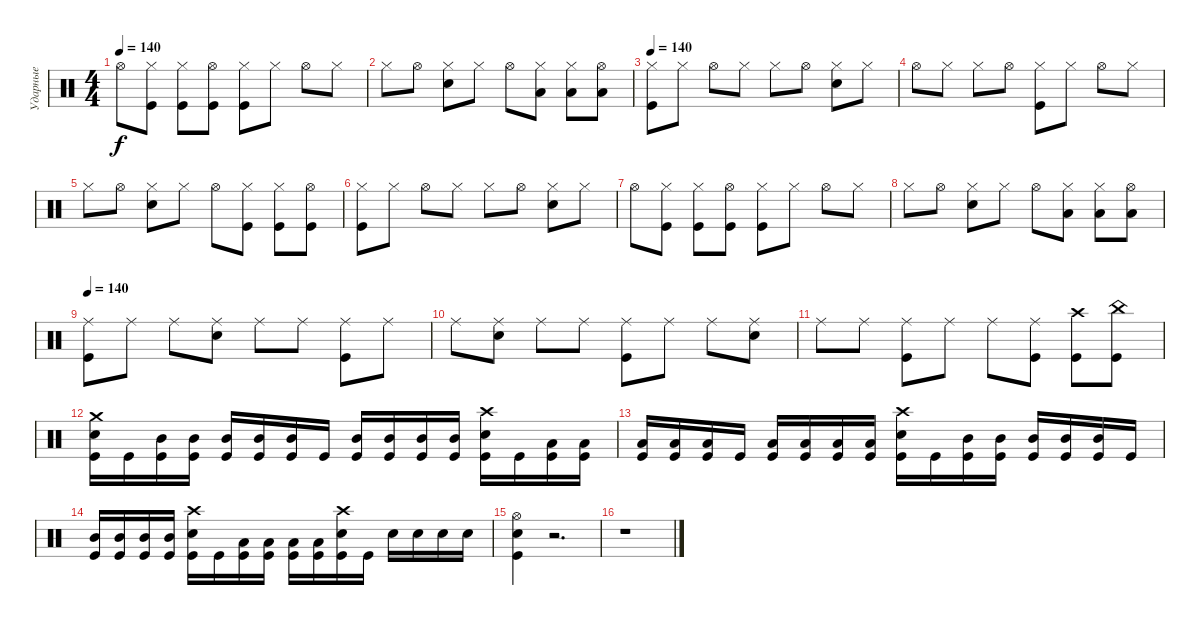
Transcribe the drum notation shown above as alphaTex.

\track ("Ударные" "Ударные") {instrument percussion}
\staff {score}
\articulation defaults
\ts (4 4)
\tempo 140
\clef neutral
\ks c "Hi-Hat (open)".8{dy f}
("Kick (hit)" "Hi-Hat (closed)").8 ("Kick (hit)" "Hi-Hat (closed)").8 ("Kick (hit)" "Hi-Hat (open)").8 ("Kick (hit)" "Hi-Hat (closed)").8 "Hi-Hat (closed)".8 "Hi-Hat (open)".8 "Hi-Hat (closed)".8 |
"Hi-Hat (closed)".8 "Hi-Hat (open)".8 ("Snare (hit) 2" "Hi-Hat (closed)").8 "Hi-Hat (closed)".8 "Hi-Hat (open)".8 ("Low Tom (hit)" "Hi-Hat (closed)").8 ("Low Tom (hit)" "Hi-Hat (closed)").8 ("Low Tom (hit)" "Hi-Hat (open)").8 |
\tempo 140
("Kick (hit)" "Hi-Hat (closed)").8 "Hi-Hat (closed)".8 "Hi-Hat (open)".8 "Hi-Hat (closed)".8 "Hi-Hat (closed)".8 "Hi-Hat (open)".8 ("Snare (hit) 2" "Hi-Hat (closed)").8 "Hi-Hat (closed)".8 |
"Hi-Hat (open)".8 "Hi-Hat (closed)".8 "Hi-Hat (closed)".8 "Hi-Hat (open)".8 ("Kick (hit)" "Hi-Hat (closed)").8 "Hi-Hat (closed)".8 "Hi-Hat (open)".8 "Hi-Hat (closed)".8 |
"Hi-Hat (closed)".8 "Hi-Hat (open)".8 ("Snare (hit) 2" "Hi-Hat (closed)").8 "Hi-Hat (closed)".8 "Hi-Hat (open)".8 ("Kick (hit)" "Hi-Hat (closed)").8 ("Kick (hit)" "Hi-Hat (closed)").8 ("Kick (hit)" "Hi-Hat (open)").8 |
("Kick (hit)" "Hi-Hat (closed)").8 "Hi-Hat (closed)".8 "Hi-Hat (open)".8 "Hi-Hat (closed)".8 "Hi-Hat (closed)".8 "Hi-Hat (open)".8 ("Snare (hit) 2" "Hi-Hat (closed)").8 "Hi-Hat (closed)".8 |
"Hi-Hat (open)".8 ("Kick (hit)" "Hi-Hat (closed)").8 ("Kick (hit)" "Hi-Hat (closed)").8 ("Kick (hit)" "Hi-Hat (open)").8 ("Kick (hit)" "Hi-Hat (closed)").8 "Hi-Hat (closed)".8 "Hi-Hat (open)".8 "Hi-Hat (closed)".8 |
"Hi-Hat (closed)".8 "Hi-Hat (open)".8 ("Snare (hit) 2" "Hi-Hat (closed)").8 "Hi-Hat (closed)".8 "Hi-Hat (open)".8 ("Low Tom (hit)" "Hi-Hat (closed)").8 ("Low Tom (hit)" "Hi-Hat (closed)").8 ("Low Tom (hit)" "Hi-Hat (open)").8 |
\tempo 140
("Kick (hit)" "Ride (middle)").8 "Ride (middle)".8 "Ride (middle)".8 ("Snare (hit) 2" "Ride (middle)").8 "Ride (middle)".8 "Ride (middle)".8 ("Kick (hit)" "Ride (middle)").8 "Ride (middle)".8 |
"Ride (middle)".8 ("Snare (hit) 2" "Ride (middle)").8 "Ride (middle)".8 "Ride (middle)".8 ("Kick (hit)" "Ride (middle)").8 "Ride (middle)".8 "Ride (middle)".8 ("Snare (hit) 2" "Ride (middle)").8 |
"Ride (middle)".8 "Ride (middle)".8 ("Kick (hit)" "Ride (middle)").8 "Ride (middle)".8 "Ride (middle)".8 ("Kick (hit)" "Ride (middle)").8 ("Kick (hit)" "Crash high (hit)").8 ("Kick (hit)" "China (hit)").8 |
("Kick (hit)" "Snare (hit) 2" "Crash medium (hit)").16 "Kick (hit)".16 ("Kick (hit)" "Mid Tom (hit)").16 ("Kick (hit)" "Mid Tom (hit)").16 ("Kick (hit)" "Mid Tom (hit)").16 ("Kick (hit)" "Mid Tom (hit)").16 ("Kick (hit)" "Mid Tom (hit)").16 "Kick (hit)".16 ("Kick (hit)" "Mid Tom (hit)").16 ("Kick (hit)" "Mid Tom (hit)").16 ("Kick (hit)" "Mid Tom (hit)").16 ("Kick (hit)" "Mid Tom (hit)").16 ("Kick (hit)" "Snare (hit) 2" "Crash high (hit)").16 "Kick (hit)".16 ("Kick (hit)" "Low Tom (hit)").16 ("Kick (hit)" "Low Tom (hit)").16 |
("Kick (hit)" "Low Tom (hit)").16 ("Kick (hit)" "Low Tom (hit)").16 ("Kick (hit)" "Low Tom (hit)").16 "Kick (hit)".16 ("Kick (hit)" "Low Tom (hit)").16 ("Kick (hit)" "Low Tom (hit)").16 ("Kick (hit)" "Low Tom (hit)").16 ("Kick (hit)" "Low Tom (hit)").16 ("Kick (hit)" "Snare (hit) 2" "Crash high (hit)").16 "Kick (hit)".16 ("Kick (hit)" "Mid Tom (hit)").16 ("Kick (hit)" "Mid Tom (hit)").16 ("Kick (hit)" "Mid Tom (hit)").16 ("Kick (hit)" "Mid Tom (hit)").16 ("Kick (hit)" "Mid Tom (hit)").16 "Kick (hit)".16 |
("Kick (hit)" "Mid Tom (hit)").16 ("Kick (hit)" "Mid Tom (hit)").16 ("Kick (hit)" "Mid Tom (hit)").16 ("Kick (hit)" "Mid Tom (hit)").16 ("Kick (hit)" "Snare (hit) 2" "Crash high (hit)").16 "Kick (hit)".16 ("Kick (hit)" "Low Tom (hit)").16 ("Kick (hit)" "Low Tom (hit)").16 ("Kick (hit)" "Low Tom (hit)").16 ("Kick (hit)" "Low Tom (hit)").16 ("Kick (hit)" "Snare (hit) 2" "Crash high (hit)").16 "Kick (hit)".16 "Snare (hit) 2".16 "Snare (hit) 2".16 "Snare (hit) 2".16 "Snare (hit) 2".16 |
("Kick (hit)" "Snare (hit) 2" "Hi-Hat (open)").4 r.2{d} |
r.1
